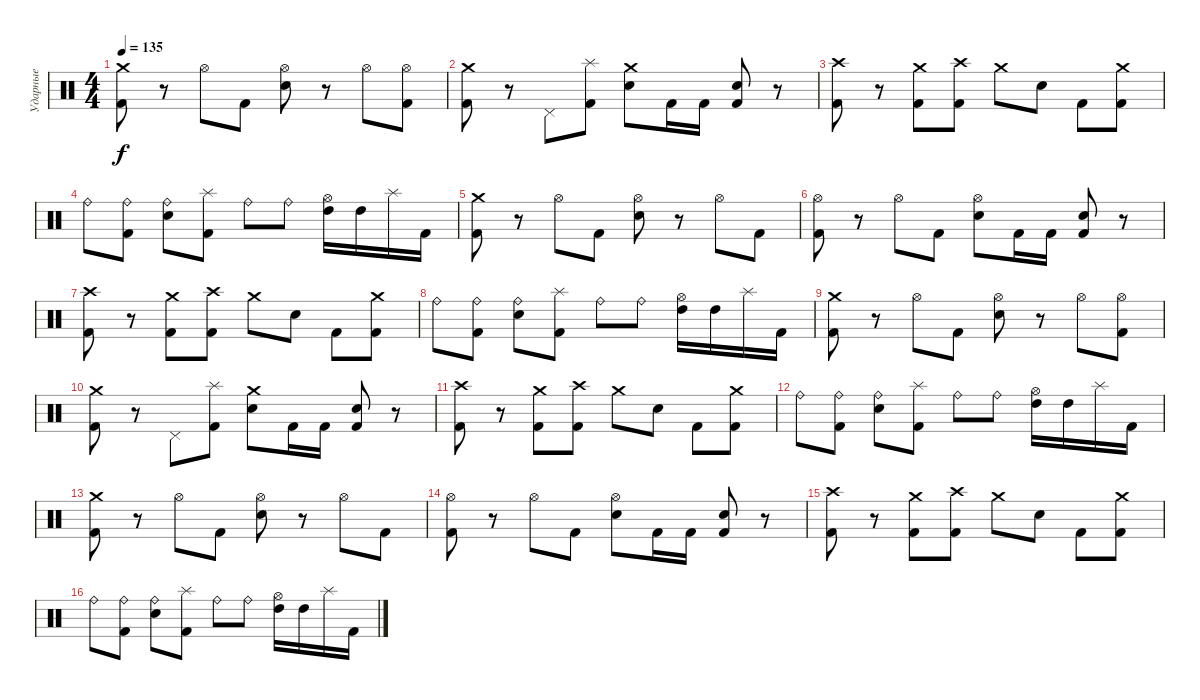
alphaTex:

\track ("Ударные" "Ударные") {instrument percussion}
\staff {score}
\articulation defaults
\ts (4 4)
\tempo 135
\clef neutral
\ks c
("Crash medium (hit)" "Kick (hit) 2").8{dy f} r.8 "Hi-Hat (open)".8 "Kick (hit) 2".8 ("Hi-Hat (open)" "Electric Snare (hit)").8 r.8 "Hi-Hat (open)".8 ("Hi-Hat (open)" "Kick (hit) 2").8 |
("Crash medium (hit)" "Kick (hit) 2").8 r.8 "Pedal Hi-Hat (hit)".8 ("Splash (hit)" "Kick (hit) 2").8 ("Crash medium (hit)" "Electric Snare (hit)").8 "Kick (hit) 2".16 "Kick (hit) 2".16 ("Electric Snare (hit)" "Kick (hit) 2").8 r.8 |
("Crash high (hit)" "Kick (hit) 2").8 r.8 ("Crash medium (hit)" "Kick (hit) 2").8 ("Crash high (hit)" "Kick (hit) 2").8 "Crash medium (hit)".8 "Electric Snare (hit)".8 "Kick (hit) 2".8 ("Crash medium (hit)" "Kick (hit) 2").8 |
"Ride (bell)".8 ("Ride (bell)" "Kick (hit) 2").8 ("Ride (bell)" "Electric Snare (hit)").8 ("Splash (hit)" "Kick (hit) 2").8 "Ride (bell)".8 "Ride (bell)".8 ("Hi-Hat (open)" "High Tom (hit)").16 "High Tom (hit)".16 "Splash (hit)".16 "Kick (hit) 2".16 |
("Crash medium (hit)" "Kick (hit) 2").8 r.8 "Hi-Hat (open)".8 "Kick (hit) 2".8 ("Hi-Hat (open)" "Electric Snare (hit)").8 r.8 "Hi-Hat (open)".8 "Kick (hit) 2".8 |
("Hi-Hat (open)" "Kick (hit) 2").8 r.8 "Hi-Hat (open)".8 "Kick (hit) 2".8 ("Hi-Hat (open)" "Electric Snare (hit)").8 "Kick (hit) 2".16 "Kick (hit) 2".16 ("Electric Snare (hit)" "Kick (hit) 2").8 r.8 |
("Crash high (hit)" "Kick (hit) 2").8 r.8 ("Crash medium (hit)" "Kick (hit) 2").8 ("Crash high (hit)" "Kick (hit) 2").8 "Crash medium (hit)".8 "Electric Snare (hit)".8 "Kick (hit) 2".8 ("Crash medium (hit)" "Kick (hit) 2").8 |
"Ride (bell)".8 ("Ride (bell)" "Kick (hit) 2").8 ("Ride (bell)" "Electric Snare (hit)").8 ("Splash (hit)" "Kick (hit) 2").8 "Ride (bell)".8 "Ride (bell)".8 ("Hi-Hat (open)" "High Tom (hit)").16 "High Tom (hit)".16 "Splash (hit)".16 "Kick (hit) 2".16 |
("Crash medium (hit)" "Kick (hit) 2").8 r.8 "Hi-Hat (open)".8 "Kick (hit) 2".8 ("Hi-Hat (open)" "Electric Snare (hit)").8 r.8 "Hi-Hat (open)".8 ("Hi-Hat (open)" "Kick (hit) 2").8 |
("Crash medium (hit)" "Kick (hit) 2").8 r.8 "Pedal Hi-Hat (hit)".8 ("Splash (hit)" "Kick (hit) 2").8 ("Crash medium (hit)" "Electric Snare (hit)").8 "Kick (hit) 2".16 "Kick (hit) 2".16 ("Electric Snare (hit)" "Kick (hit) 2").8 r.8 |
("Crash high (hit)" "Kick (hit) 2").8 r.8 ("Crash medium (hit)" "Kick (hit) 2").8 ("Crash high (hit)" "Kick (hit) 2").8 "Crash medium (hit)".8 "Electric Snare (hit)".8 "Kick (hit) 2".8 ("Crash medium (hit)" "Kick (hit) 2").8 |
"Ride (bell)".8 ("Ride (bell)" "Kick (hit) 2").8 ("Ride (bell)" "Electric Snare (hit)").8 ("Splash (hit)" "Kick (hit) 2").8 "Ride (bell)".8 "Ride (bell)".8 ("Hi-Hat (open)" "High Tom (hit)").16 "High Tom (hit)".16 "Splash (hit)".16 "Kick (hit) 2".16 |
("Crash medium (hit)" "Kick (hit) 2").8 r.8 "Hi-Hat (open)".8 "Kick (hit) 2".8 ("Hi-Hat (open)" "Electric Snare (hit)").8 r.8 "Hi-Hat (open)".8 "Kick (hit) 2".8 |
("Hi-Hat (open)" "Kick (hit) 2").8 r.8 "Hi-Hat (open)".8 "Kick (hit) 2".8 ("Hi-Hat (open)" "Electric Snare (hit)").8 "Kick (hit) 2".16 "Kick (hit) 2".16 ("Electric Snare (hit)" "Kick (hit) 2").8 r.8 |
("Crash high (hit)" "Kick (hit) 2").8 r.8 ("Crash medium (hit)" "Kick (hit) 2").8 ("Crash high (hit)" "Kick (hit) 2").8 "Crash medium (hit)".8 "Electric Snare (hit)".8 "Kick (hit) 2".8 ("Crash medium (hit)" "Kick (hit) 2").8 |
"Ride (bell)".8 ("Ride (bell)" "Kick (hit) 2").8 ("Ride (bell)" "Electric Snare (hit)").8 ("Splash (hit)" "Kick (hit) 2").8 "Ride (bell)".8 "Ride (bell)".8 ("Hi-Hat (open)" "High Tom (hit)").16 "High Tom (hit)".16 "Splash (hit)".16 "Kick (hit) 2".16
